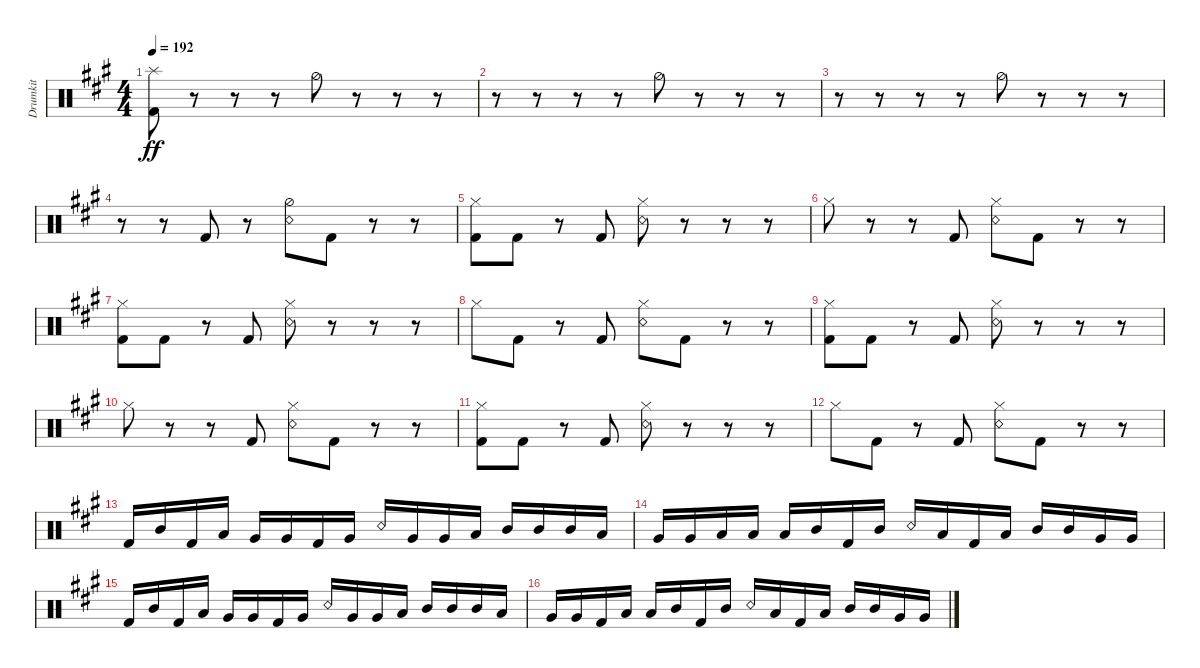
\track ("Drumkit" "Drumkit") {instrument percussion}
\staff {score}
\articulation defaults
\ts (4 4)
\tempo 192
\clef neutral
\ks a
("Splash (hit)" "Kick (hit) 2").8{dy ff} r.8 r.8 r.8 "Hi-Hat (half)".8 r.8 r.8 r.8 |
r.8 r.8 r.8 r.8 "Hi-Hat (half)".8 r.8 r.8 r.8 |
r.8 r.8 r.8 r.8 "Hi-Hat (half)".8 r.8 r.8 r.8 |
r.8 r.8 "Kick (hit) 2".8 r.8 ("Snare (rim shot)" "Hi-Hat (half)").8 "Kick (hit) 2".8 r.8 r.8 |
("Kick (hit) 2" "Hi-Hat (closed)").8{txt ""} "Kick (hit) 2".8 r.8 "Kick (hit) 2".8 ("Snare (rim shot)" "Hi-Hat (closed)").8 r.8 r.8 r.8 |
"Hi-Hat (closed)".8 r.8 r.8 "Kick (hit) 2".8 ("Snare (rim shot)" "Hi-Hat (closed)").8 "Kick (hit) 2".8 r.8 r.8 |
("Kick (hit) 2" "Hi-Hat (closed)").8 "Kick (hit) 2".8 r.8 "Kick (hit) 2".8 ("Snare (rim shot)" "Hi-Hat (closed)").8 r.8 r.8 r.8 |
"Hi-Hat (closed)".8 "Kick (hit) 2".8 r.8 "Kick (hit) 2".8 ("Snare (rim shot)" "Hi-Hat (closed)").8 "Kick (hit) 2".8 r.8 r.8 |
("Kick (hit) 2" "Hi-Hat (closed)").8 "Kick (hit) 2".8 r.8 "Kick (hit) 2".8 ("Snare (rim shot)" "Hi-Hat (closed)").8 r.8 r.8 r.8 |
"Hi-Hat (closed)".8 r.8 r.8 "Kick (hit) 2".8 ("Snare (rim shot)" "Hi-Hat (closed)").8 "Kick (hit) 2".8 r.8 r.8 |
("Kick (hit) 2" "Hi-Hat (closed)").8 "Kick (hit) 2".8 r.8 "Kick (hit) 2".8 ("Snare (rim shot)" "Hi-Hat (closed)").8 r.8 r.8 r.8 |
"Hi-Hat (closed)".8 "Kick (hit) 2".8 r.8 "Kick (hit) 2".8 ("Snare (rim shot)" "Hi-Hat (closed)").8 "Kick (hit) 2".8 r.8 r.8 |
"Kick (hit) 2".16 "Mid Tom (hit)".16 "Kick (hit) 2".16 "Low Tom (hit)".16 "Very Low Tom (hit)".16 "Very Low Tom (hit)".16 "Kick (hit) 2".16 "Very Low Tom (hit)".16 "Snare (rim shot)".16 "Very Low Tom (hit)".16 "Very Low Tom (hit)".16 "Low Tom (hit)".16 "Mid Tom (hit)".16 "Mid Tom (hit)".16 "Mid Tom (hit)".16 "Low Tom (hit)".16 |
"Very Low Tom (hit)".16 "Very Low Tom (hit)".16 "Low Tom (hit)".16 "Low Tom (hit)".16 "Low Tom (hit)".16 "Mid Tom (hit)".16 "Kick (hit) 2".16 "Mid Tom (hit)".16 "Snare (rim shot)".16 "Low Tom (hit)".16 "Kick (hit) 2".16 "Low Tom (hit)".16 "Mid Tom (hit)".16 "Mid Tom (hit)".16 "Very Low Tom (hit)".16 "Very Low Tom (hit)".16 |
"Kick (hit) 2".16 "Mid Tom (hit)".16 "Kick (hit) 2".16 "Low Tom (hit)".16 "Very Low Tom (hit)".16 "Very Low Tom (hit)".16 "Kick (hit) 2".16 "Very Low Tom (hit)".16 "Snare (rim shot)".16 "Very Low Tom (hit)".16 "Very Low Tom (hit)".16 "Low Tom (hit)".16 "Mid Tom (hit)".16 "Mid Tom (hit)".16 "Mid Tom (hit)".16 "Low Tom (hit)".16 |
"Very Low Tom (hit)".16 "Very Low Tom (hit)".16 "Kick (hit) 2".16 "Low Tom (hit)".16 "Low Tom (hit)".16 "Mid Tom (hit)".16 "Kick (hit) 2".16 "Mid Tom (hit)".16 "Snare (rim shot)".16 "Low Tom (hit)".16 "Kick (hit) 2".16 "Low Tom (hit)".16 "Mid Tom (hit)".16 "Mid Tom (hit)".16 "Very Low Tom (hit)".16 "Very Low Tom (hit)".16
